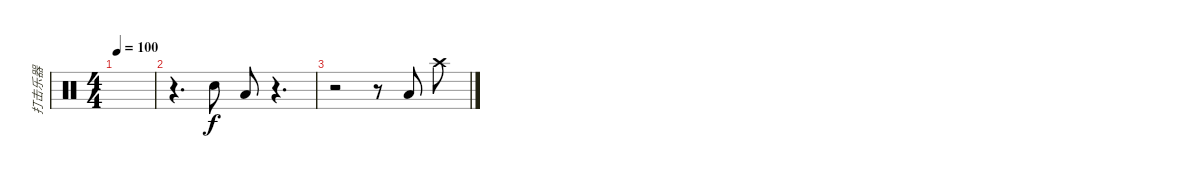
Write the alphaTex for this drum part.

\track ("打击乐器" "打击乐器") {instrument percussion}
\staff {score}
\articulation defaults
\ts (4 4)
\tempo 100
\clef neutral
\ks c
|
r.4{d} "Snare (hit)".8 "Low Tom (hit)".8 r.4{d} |
r.2 r.8 "Low Tom (hit)".8 "Crash high (hit)".8
